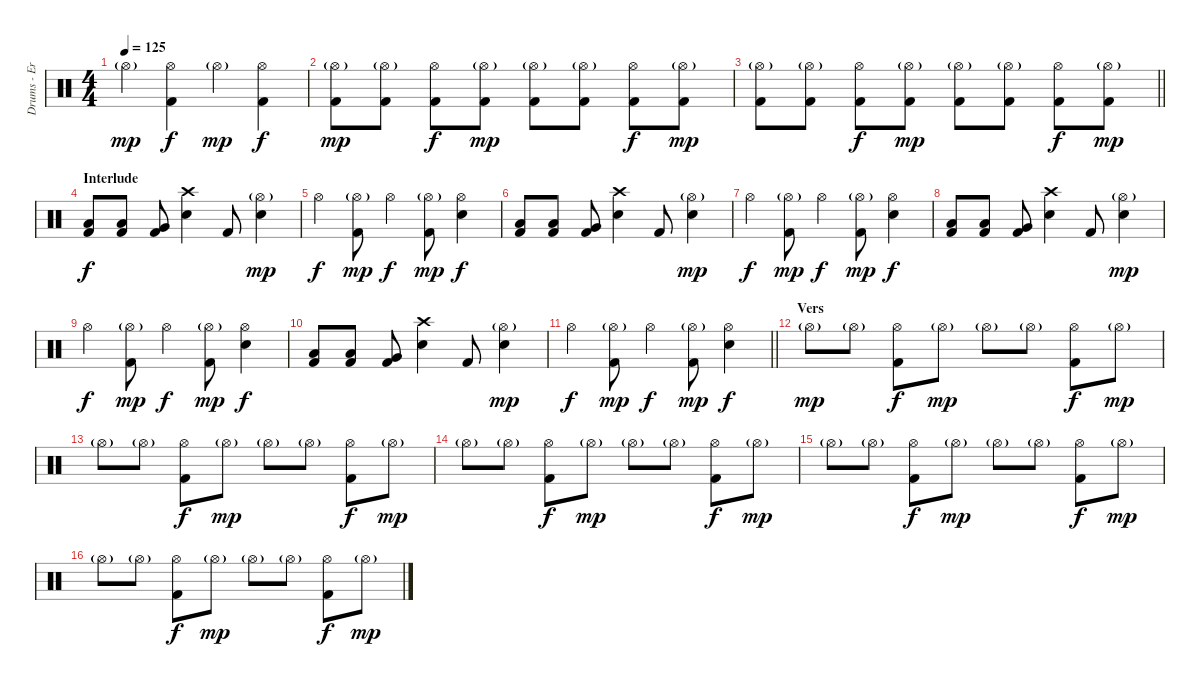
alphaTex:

\track ("Drums - Eric Young" "Drums - Er") {instrument percussion}
\staff {score}
\articulation defaults
\ts (4 4)
\tempo 125
\clef neutral
\ks c "Hi-Hat (open)"{g}.4{dy mp}
("Hi-Hat (open)" "Kick (hit) 2").4{dy f} "Hi-Hat (open)"{g}.4{dy mp} ("Hi-Hat (open)" "Kick (hit) 2").4{dy f} |
("Hi-Hat (open)"{g} "Kick (hit) 2").8{dy mp} ("Hi-Hat (open)"{g} "Kick (hit) 2").8 ("Hi-Hat (open)" "Kick (hit) 2").8{dy f} ("Hi-Hat (open)"{g} "Kick (hit) 2").8{dy mp} ("Hi-Hat (open)"{g} "Kick (hit) 2").8 ("Hi-Hat (open)"{g} "Kick (hit) 2").8 ("Hi-Hat (open)" "Kick (hit) 2").8{dy f} ("Hi-Hat (open)"{g} "Kick (hit) 2").8{dy mp} |
\barLineRight lightlight
("Hi-Hat (open)"{g} "Kick (hit) 2").8 ("Hi-Hat (open)"{g} "Kick (hit) 2").8 ("Hi-Hat (open)" "Kick (hit) 2").8{dy f} ("Hi-Hat (open)"{g} "Kick (hit) 2").8{dy mp} ("Hi-Hat (open)"{g} "Kick (hit) 2").8 ("Hi-Hat (open)"{g} "Kick (hit) 2").8 ("Hi-Hat (open)" "Kick (hit) 2").8{dy f} ("Hi-Hat (open)"{g} "Kick (hit) 2").8{dy mp} |
\section ("" "Interlude")
("Low Tom (hit)" "Kick (hit) 2").8{dy f} ("Low Tom (hit)" "Kick (hit) 2").8 ("Very Low Tom (hit)" "Kick (hit) 2").8 ("Crash high (hit)" "Electric Snare (hit)").4 "Kick (hit) 2".8 ("Hi-Hat (open)"{g} "Electric Snare (hit)").4{dy mp} |
"Hi-Hat (open)".4{dy f} ("Hi-Hat (open)"{g} "Kick (hit) 2").8{dy mp} "Hi-Hat (open)".4{dy f} ("Hi-Hat (open)"{g} "Kick (hit) 2").8{dy mp} ("Hi-Hat (open)" "Electric Snare (hit)").4{dy f} |
("Low Tom (hit)" "Kick (hit) 2").8 ("Low Tom (hit)" "Kick (hit) 2").8 ("Very Low Tom (hit)" "Kick (hit) 2").8 ("Crash high (hit)" "Electric Snare (hit)").4 "Kick (hit) 2".8 ("Hi-Hat (open)"{g} "Electric Snare (hit)").4{dy mp} |
"Hi-Hat (open)".4{dy f} ("Hi-Hat (open)"{g} "Kick (hit) 2").8{dy mp} "Hi-Hat (open)".4{dy f} ("Hi-Hat (open)"{g} "Kick (hit) 2").8{dy mp} ("Hi-Hat (open)" "Electric Snare (hit)").4{dy f} |
("Low Tom (hit)" "Kick (hit) 2").8 ("Low Tom (hit)" "Kick (hit) 2").8 ("Very Low Tom (hit)" "Kick (hit) 2").8 ("Crash high (hit)" "Electric Snare (hit)").4 "Kick (hit) 2".8 ("Hi-Hat (open)"{g} "Electric Snare (hit)").4{dy mp} |
"Hi-Hat (open)".4{dy f} ("Hi-Hat (open)"{g} "Kick (hit) 2").8{dy mp} "Hi-Hat (open)".4{dy f} ("Hi-Hat (open)"{g} "Kick (hit) 2").8{dy mp} ("Hi-Hat (open)" "Electric Snare (hit)").4{dy f} |
("Low Tom (hit)" "Kick (hit) 2").8 ("Low Tom (hit)" "Kick (hit) 2").8 ("Very Low Tom (hit)" "Kick (hit) 2").8 ("Crash high (hit)" "Electric Snare (hit)").4 "Kick (hit) 2".8 ("Hi-Hat (open)"{g} "Electric Snare (hit)").4{dy mp} |
\barLineRight lightlight "Hi-Hat (open)".4{dy f}
("Hi-Hat (open)"{g} "Kick (hit) 2").8{dy mp} "Hi-Hat (open)".4{dy f} ("Hi-Hat (open)"{g} "Kick (hit) 2").8{dy mp} ("Hi-Hat (open)" "Electric Snare (hit)").4{dy f} |
\section ("" "Vers")
"Hi-Hat (open)"{g}.8{dy mp} "Hi-Hat (open)"{g}.8 ("Hi-Hat (open)" "Kick (hit) 2").8{dy f} "Hi-Hat (open)"{g}.8{dy mp} "Hi-Hat (open)"{g}.8 "Hi-Hat (open)"{g}.8 ("Hi-Hat (open)" "Kick (hit) 2").8{dy f} "Hi-Hat (open)"{g}.8{dy mp} |
"Hi-Hat (open)"{g}.8 "Hi-Hat (open)"{g}.8 ("Hi-Hat (open)" "Kick (hit) 2").8{dy f} "Hi-Hat (open)"{g}.8{dy mp} "Hi-Hat (open)"{g}.8 "Hi-Hat (open)"{g}.8 ("Hi-Hat (open)" "Kick (hit) 2").8{dy f} "Hi-Hat (open)"{g}.8{dy mp} |
"Hi-Hat (open)"{g}.8 "Hi-Hat (open)"{g}.8 ("Hi-Hat (open)" "Kick (hit) 2").8{dy f} "Hi-Hat (open)"{g}.8{dy mp} "Hi-Hat (open)"{g}.8 "Hi-Hat (open)"{g}.8 ("Hi-Hat (open)" "Kick (hit) 2").8{dy f} "Hi-Hat (open)"{g}.8{dy mp} |
"Hi-Hat (open)"{g}.8 "Hi-Hat (open)"{g}.8 ("Hi-Hat (open)" "Kick (hit) 2").8{dy f} "Hi-Hat (open)"{g}.8{dy mp} "Hi-Hat (open)"{g}.8 "Hi-Hat (open)"{g}.8 ("Hi-Hat (open)" "Kick (hit) 2").8{dy f} "Hi-Hat (open)"{g}.8{dy mp} |
"Hi-Hat (open)"{g}.8 "Hi-Hat (open)"{g}.8 ("Hi-Hat (open)" "Kick (hit) 2").8{dy f} "Hi-Hat (open)"{g}.8{dy mp} "Hi-Hat (open)"{g}.8 "Hi-Hat (open)"{g}.8 ("Hi-Hat (open)" "Kick (hit) 2").8{dy f} "Hi-Hat (open)"{g}.8{dy mp}
